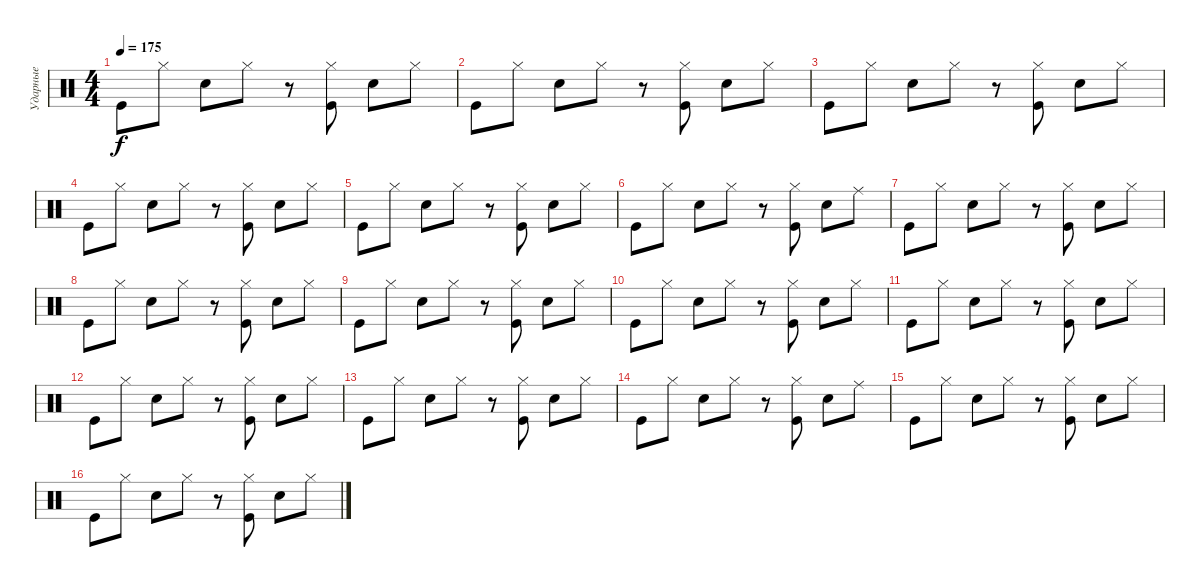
\track ("Ударные" "Ударные") {instrument percussion}
\staff {score}
\articulation defaults
\ts (4 4)
\tempo 175
\clef neutral
\ks c "Kick (hit)".8{dy f} "Hi-Hat (closed)".8 "Electric Snare (hit)".8 "Hi-Hat (closed)".8
r.8 ("Hi-Hat (closed)" "Kick (hit)").8 "Electric Snare (hit)".8 "Hi-Hat (closed)".8 |
"Kick (hit)".8 "Hi-Hat (closed)".8 "Electric Snare (hit)".8 "Hi-Hat (closed)".8 r.8 ("Hi-Hat (closed)" "Kick (hit)").8 "Electric Snare (hit)".8 "Hi-Hat (closed)".8 |
"Kick (hit)".8 "Hi-Hat (closed)".8 "Electric Snare (hit)".8 "Hi-Hat (closed)".8 r.8 ("Hi-Hat (closed)" "Kick (hit)").8 "Electric Snare (hit)".8 "Hi-Hat (closed)".8 |
"Kick (hit)".8 "Hi-Hat (closed)".8 "Electric Snare (hit)".8 "Hi-Hat (closed)".8 r.8 ("Hi-Hat (closed)" "Kick (hit)").8 "Electric Snare (hit)".8 "Hi-Hat (closed)".8 |
"Kick (hit)".8 "Hi-Hat (closed)".8 "Electric Snare (hit)".8 "Hi-Hat (closed)".8 r.8 ("Hi-Hat (closed)" "Kick (hit)").8 "Electric Snare (hit)".8 "Hi-Hat (closed)".8 |
"Kick (hit)".8 "Hi-Hat (closed)".8 "Electric Snare (hit)".8 "Hi-Hat (closed)".8 r.8 ("Hi-Hat (closed)" "Kick (hit)").8 "Electric Snare (hit)".8 "Ride (middle)".8 |
"Kick (hit)".8 "Hi-Hat (closed)".8 "Electric Snare (hit)".8 "Hi-Hat (closed)".8 r.8 ("Hi-Hat (closed)" "Kick (hit)").8 "Electric Snare (hit)".8 "Hi-Hat (closed)".8 |
"Kick (hit)".8 "Hi-Hat (closed)".8 "Electric Snare (hit)".8 "Hi-Hat (closed)".8 r.8 ("Hi-Hat (closed)" "Kick (hit)").8 "Electric Snare (hit)".8 "Hi-Hat (closed)".8 |
"Kick (hit)".8 "Hi-Hat (closed)".8 "Electric Snare (hit)".8 "Hi-Hat (closed)".8 r.8 ("Hi-Hat (closed)" "Kick (hit)").8 "Electric Snare (hit)".8 "Hi-Hat (closed)".8 |
"Kick (hit)".8 "Hi-Hat (closed)".8 "Electric Snare (hit)".8 "Hi-Hat (closed)".8 r.8 ("Hi-Hat (closed)" "Kick (hit)").8 "Electric Snare (hit)".8 "Hi-Hat (closed)".8 |
"Kick (hit)".8 "Hi-Hat (closed)".8 "Electric Snare (hit)".8 "Hi-Hat (closed)".8 r.8 ("Hi-Hat (closed)" "Kick (hit)").8 "Electric Snare (hit)".8 "Hi-Hat (closed)".8 |
"Kick (hit)".8 "Hi-Hat (closed)".8 "Electric Snare (hit)".8 "Hi-Hat (closed)".8 r.8 ("Hi-Hat (closed)" "Kick (hit)").8 "Electric Snare (hit)".8 "Hi-Hat (closed)".8 |
"Kick (hit)".8 "Hi-Hat (closed)".8 "Electric Snare (hit)".8 "Hi-Hat (closed)".8 r.8 ("Hi-Hat (closed)" "Kick (hit)").8 "Electric Snare (hit)".8 "Hi-Hat (closed)".8 |
"Kick (hit)".8 "Hi-Hat (closed)".8 "Electric Snare (hit)".8 "Hi-Hat (closed)".8 r.8 ("Hi-Hat (closed)" "Kick (hit)").8 "Electric Snare (hit)".8 "Ride (middle)".8 |
"Kick (hit)".8 "Hi-Hat (closed)".8 "Electric Snare (hit)".8 "Hi-Hat (closed)".8 r.8 ("Hi-Hat (closed)" "Kick (hit)").8 "Electric Snare (hit)".8 "Hi-Hat (closed)".8 |
"Kick (hit)".8 "Hi-Hat (closed)".8 "Electric Snare (hit)".8 "Hi-Hat (closed)".8 r.8 ("Hi-Hat (closed)" "Kick (hit)").8 "Electric Snare (hit)".8 "Hi-Hat (closed)".8
